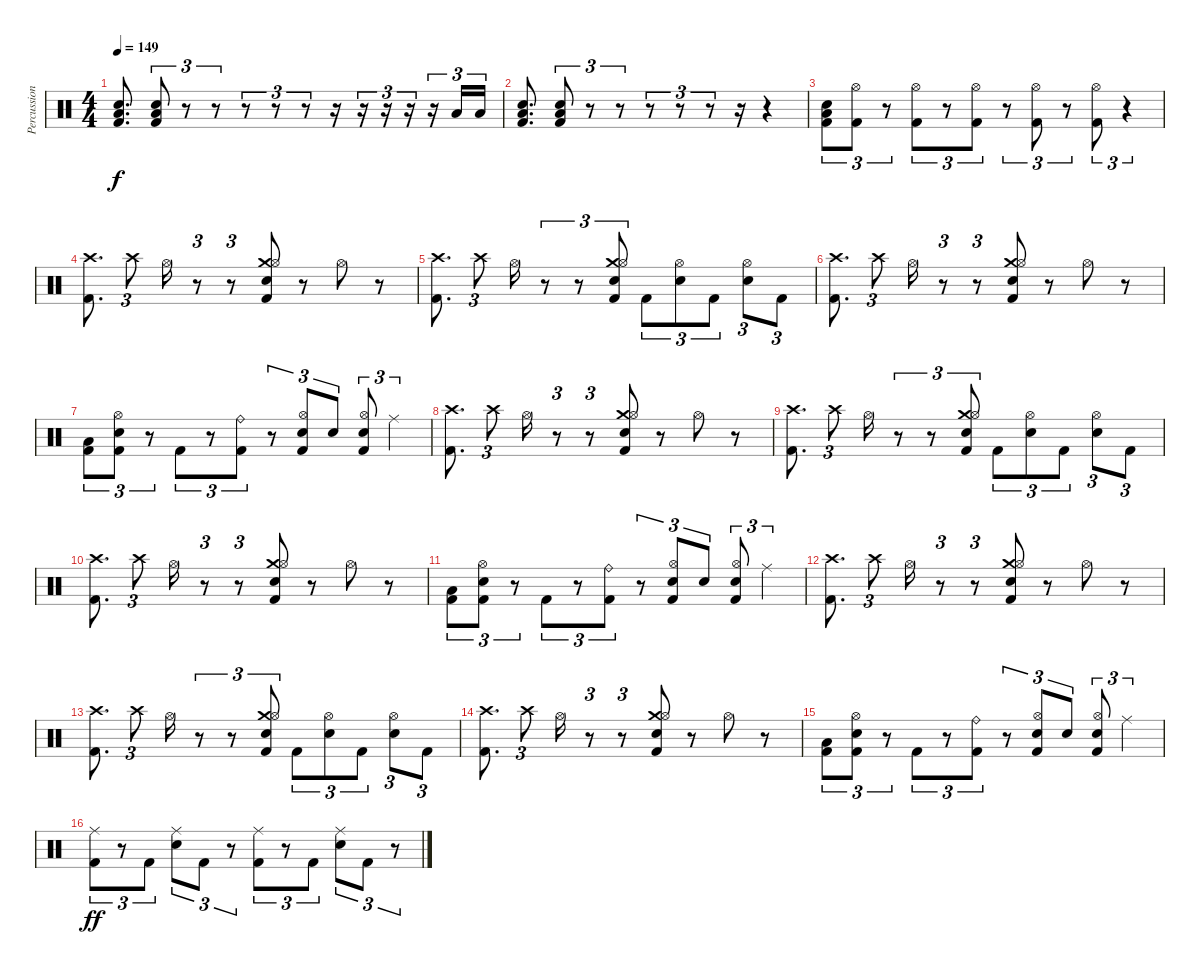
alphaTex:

\track ("Percussion" "Percussion") {instrument percussion}
\staff {score}
\articulation defaults
\ts (4 4)
\tempo 149
\clef neutral
\ks c
("Kick (hit) 2" "Snare (hit) 2" "Low Tom (hit)").8{d dy f} ("Kick (hit) 2" "Snare (hit) 2" "Low Tom (hit)").8{tu (3 2)} r.8{tu (3 2)} r.8{tu (3 2)} r.8{tu (3 2)} r.8{tu (3 2)} r.8{tu (3 2)} r.16 r.16{tu (3 2)} r.16{tu (3 2)} r.16{tu (3 2)} r.16{tu (3 2)} "Low Tom (hit)".16{tu (3 2)} "Low Tom (hit)".16{tu (3 2)} |
("Kick (hit) 2" "Snare (hit) 2" "Low Tom (hit)").8{d} ("Kick (hit) 2" "Snare (hit) 2" "Low Tom (hit)").8{tu (3 2)} r.8{tu (3 2)} r.8{tu (3 2)} r.8{tu (3 2)} r.8{tu (3 2)} r.8{tu (3 2)} r.16 r.4 |
("Snare (hit) 2" "Kick (hit) 2" "Low Tom (hit)").8{tu (3 2)} ("Hi-Hat (open)" "Kick (hit) 2").8{tu (3 2)} r.8{tu (3 2)} ("Hi-Hat (open)" "Kick (hit) 2").8{tu (3 2)} r.8{tu (3 2)} ("Hi-Hat (open)" "Kick (hit) 2").8{tu (3 2)} r.8{tu (3 2)} ("Hi-Hat (open)" "Kick (hit) 2").8{tu (3 2)} r.8{tu (3 2)} ("Hi-Hat (open)" "Kick (hit) 2").8{tu (3 2)} r.4{tu (3 2)} |
("Crash high (hit)" "Kick (hit) 2").8{d} "Crash high (hit)".8{tu (3 2)} "Hi-Hat (open)".16 r.8{tu (3 2)} r.8{tu (3 2)} ("Crash medium (hit)" "Hi-Hat (open)" "Kick (hit) 2" "Electric Snare (hit)").8 r.8 "Hi-Hat (open)".8 r.8 |
("Crash high (hit)" "Kick (hit) 2").8{d} "Crash high (hit)".8{tu (3 2)} "Hi-Hat (open)".16 r.8{tu (3 2)} r.8{tu (3 2)} ("Crash medium (hit)" "Hi-Hat (open)" "Kick (hit) 2" "Electric Snare (hit)").8{tu (3 2)} "Kick (hit) 2".8{tu (3 2)} ("Hi-Hat (open)" "Snare (hit) 2").8{tu (3 2)} "Kick (hit) 2".8{tu (3 2)} ("Hi-Hat (open)" "Snare (hit) 2").8{tu (3 2)} "Kick (hit) 2".8{tu (3 2)} |
("Crash high (hit)" "Kick (hit) 2").8{d} "Crash high (hit)".8{tu (3 2)} "Hi-Hat (open)".16 r.8{tu (3 2)} r.8{tu (3 2)} ("Crash medium (hit)" "Hi-Hat (open)" "Kick (hit) 2" "Electric Snare (hit)").8 r.8 "Hi-Hat (open)".8 r.8 |
("Kick (hit) 2" "Low Tom (hit)").8{tu (3 2)} ("Hi-Hat (open)" "Kick (hit) 2" "Snare (hit) 2").8{tu (3 2)} r.8{tu (3 2)} "Kick (hit) 2".8{tu (3 2)} r.8{tu (3 2)} ("Ride (bell)" "Kick (hit) 2").8{tu (3 2)} r.8{tu (3 2)} ("Hi-Hat (open)" "Kick (hit) 2" "Electric Snare (hit)").8{tu (3 2)} "Electric Snare (hit)".8{tu (3 2)} ("Hi-Hat (open)" "Kick (hit) 2" "Electric Snare (hit)").8{tu (3 2)} "Ride (middle)".4{tu (3 2)} |
("Crash high (hit)" "Kick (hit) 2").8{d} "Crash high (hit)".8{tu (3 2)} "Hi-Hat (open)".16 r.8{tu (3 2)} r.8{tu (3 2)} ("Crash medium (hit)" "Hi-Hat (open)" "Kick (hit) 2" "Electric Snare (hit)").8 r.8 "Hi-Hat (open)".8 r.8 |
("Crash high (hit)" "Kick (hit) 2").8{d} "Crash high (hit)".8{tu (3 2)} "Hi-Hat (open)".16 r.8{tu (3 2)} r.8{tu (3 2)} ("Crash medium (hit)" "Hi-Hat (open)" "Kick (hit) 2" "Electric Snare (hit)").8{tu (3 2)} "Kick (hit) 2".8{tu (3 2)} ("Hi-Hat (open)" "Snare (hit) 2").8{tu (3 2)} "Kick (hit) 2".8{tu (3 2)} ("Hi-Hat (open)" "Snare (hit) 2").8{tu (3 2)} "Kick (hit) 2".8{tu (3 2)} |
("Crash high (hit)" "Kick (hit) 2").8{d} "Crash high (hit)".8{tu (3 2)} "Hi-Hat (open)".16 r.8{tu (3 2)} r.8{tu (3 2)} ("Crash medium (hit)" "Hi-Hat (open)" "Kick (hit) 2" "Electric Snare (hit)").8 r.8 "Hi-Hat (open)".8 r.8 |
("Kick (hit) 2" "Low Tom (hit)").8{tu (3 2)} ("Hi-Hat (open)" "Kick (hit) 2" "Snare (hit) 2").8{tu (3 2)} r.8{tu (3 2)} "Kick (hit) 2".8{tu (3 2)} r.8{tu (3 2)} ("Ride (bell)" "Kick (hit) 2").8{tu (3 2)} r.8{tu (3 2)} ("Hi-Hat (open)" "Kick (hit) 2" "Electric Snare (hit)").8{tu (3 2)} "Electric Snare (hit)".8{tu (3 2)} ("Hi-Hat (open)" "Kick (hit) 2" "Electric Snare (hit)").8{tu (3 2)} "Ride (middle)".4{tu (3 2)} |
("Crash high (hit)" "Kick (hit) 2").8{d} "Crash high (hit)".8{tu (3 2)} "Hi-Hat (open)".16 r.8{tu (3 2)} r.8{tu (3 2)} ("Crash medium (hit)" "Hi-Hat (open)" "Kick (hit) 2" "Electric Snare (hit)").8 r.8 "Hi-Hat (open)".8 r.8 |
("Crash high (hit)" "Kick (hit) 2").8{d} "Crash high (hit)".8{tu (3 2)} "Hi-Hat (open)".16 r.8{tu (3 2)} r.8{tu (3 2)} ("Crash medium (hit)" "Hi-Hat (open)" "Kick (hit) 2" "Electric Snare (hit)").8{tu (3 2)} "Kick (hit) 2".8{tu (3 2)} ("Hi-Hat (open)" "Snare (hit) 2").8{tu (3 2)} "Kick (hit) 2".8{tu (3 2)} ("Hi-Hat (open)" "Snare (hit) 2").8{tu (3 2)} "Kick (hit) 2".8{tu (3 2)} |
("Crash high (hit)" "Kick (hit) 2").8{d} "Crash high (hit)".8{tu (3 2)} "Hi-Hat (open)".16 r.8{tu (3 2)} r.8{tu (3 2)} ("Crash medium (hit)" "Hi-Hat (open)" "Kick (hit) 2" "Electric Snare (hit)").8 r.8 "Hi-Hat (open)".8 r.8 |
("Kick (hit) 2" "Low Tom (hit)").8{tu (3 2)} ("Hi-Hat (open)" "Kick (hit) 2" "Snare (hit) 2").8{tu (3 2)} r.8{tu (3 2)} "Kick (hit) 2".8{tu (3 2)} r.8{tu (3 2)} ("Ride (bell)" "Kick (hit) 2").8{tu (3 2)} r.8{tu (3 2)} ("Hi-Hat (open)" "Kick (hit) 2" "Electric Snare (hit)").8{tu (3 2)} "Electric Snare (hit)".8{tu (3 2)} ("Hi-Hat (open)" "Kick (hit) 2" "Electric Snare (hit)").8{tu (3 2)} "Ride (middle)".4{tu (3 2)} |
("Kick (hit) 2" "Ride (middle)").8{tu (3 2) dy ff} r.8{tu (3 2)} "Kick (hit) 2".8{tu (3 2)} ("Snare (hit) 2" "Ride (middle)").8{tu (3 2)} "Kick (hit) 2".8{tu (3 2)} r.8{tu (3 2)} ("Kick (hit) 2" "Ride (middle)").8{tu (3 2)} r.8{tu (3 2)} "Kick (hit) 2".8{tu (3 2)} ("Snare (hit) 2" "Ride (middle)").8{tu (3 2)} "Kick (hit) 2".8{tu (3 2)} r.8{tu (3 2)}
